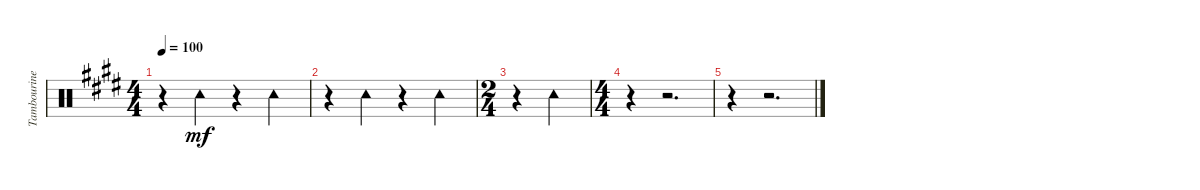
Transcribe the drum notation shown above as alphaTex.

\track ("Tambourine" "Tambourine") {instrument percussion}
\staff {score}
\articulation defaults
\ts (4 4)
\tempo 100
\clef neutral
\ks e
r.4{dy mf} "Tambourine (hit)".4 r.4 "Tambourine (hit)".4 |
r.4 "Tambourine (hit)".4 r.4 "Tambourine (hit)".4 |
\ts (2 4)
r.4 "Tambourine (hit)".4 |
\ts (4 4)
r.4 r.2{d} |
r.4 r.2{d}
